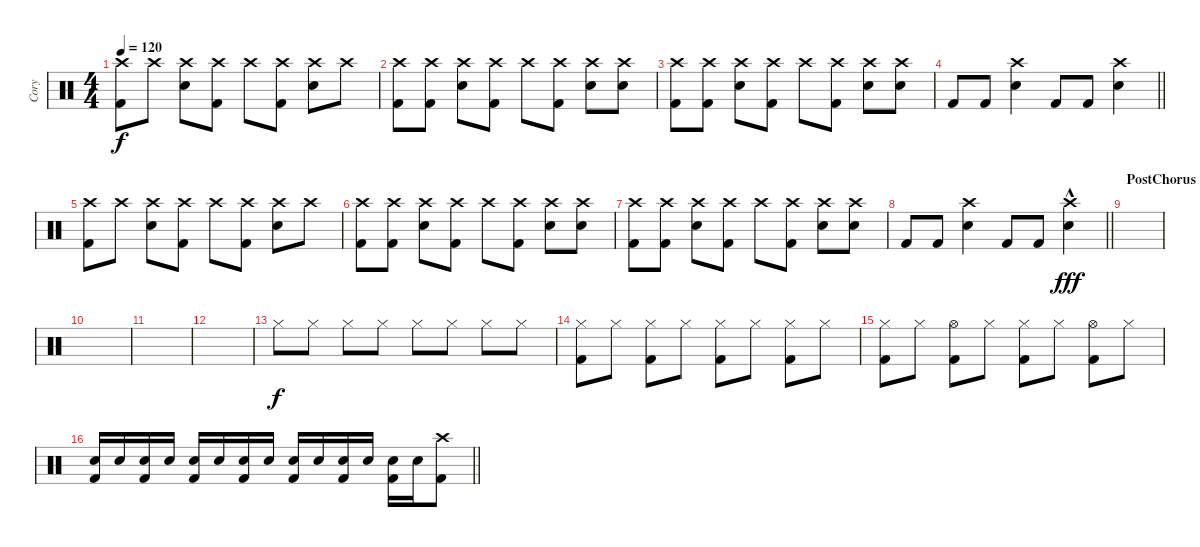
\track ("Cory" "Cory") {instrument percussion}
\staff {score}
\articulation defaults
\ts (4 4)
\tempo 120
\clef neutral
\ks c
("Crash high (hit)" "Kick (hit) 2").8{dy f} "Crash high (hit)".8 ("Crash high (hit)" "Snare (hit) 2").8 ("Crash high (hit)" "Kick (hit) 2").8 "Crash high (hit)".8 ("Crash high (hit)" "Kick (hit) 2").8 ("Crash high (hit)" "Snare (hit) 2").8 "Crash high (hit)".8 |
("Crash high (hit)" "Kick (hit) 2").8 ("Crash high (hit)" "Kick (hit) 2").8 ("Crash high (hit)" "Snare (hit) 2").8 ("Crash high (hit)" "Kick (hit) 2").8 "Crash high (hit)".8 ("Crash high (hit)" "Kick (hit) 2").8 ("Crash high (hit)" "Snare (hit) 2").8 ("Crash high (hit)" "Snare (hit) 2").8 |
("Crash high (hit)" "Kick (hit) 2").8 ("Crash high (hit)" "Kick (hit) 2").8 ("Crash high (hit)" "Snare (hit) 2").8 ("Crash high (hit)" "Kick (hit) 2").8 "Crash high (hit)".8 ("Crash high (hit)" "Kick (hit) 2").8 ("Crash high (hit)" "Snare (hit) 2").8 ("Crash high (hit)" "Snare (hit) 2").8 |
\barLineRight lightlight "Kick (hit) 2".8 "Kick (hit) 2".8
("Crash high (hit)" "Snare (hit) 2").4 "Kick (hit) 2".8 "Kick (hit) 2".8 ("Crash high (hit)" "Snare (hit) 2").4 |
("Crash high (hit)" "Kick (hit) 2").8 "Crash high (hit)".8 ("Crash high (hit)" "Snare (hit) 2").8 ("Crash high (hit)" "Kick (hit) 2").8 "Crash high (hit)".8 ("Crash high (hit)" "Kick (hit) 2").8 ("Crash high (hit)" "Snare (hit) 2").8 "Crash high (hit)".8 |
("Crash high (hit)" "Kick (hit) 2").8 ("Crash high (hit)" "Kick (hit) 2").8 ("Crash high (hit)" "Snare (hit) 2").8 ("Crash high (hit)" "Kick (hit) 2").8 "Crash high (hit)".8 ("Crash high (hit)" "Kick (hit) 2").8 ("Crash high (hit)" "Snare (hit) 2").8 ("Crash high (hit)" "Snare (hit) 2").8 |
("Crash high (hit)" "Kick (hit) 2").8 ("Crash high (hit)" "Kick (hit) 2").8 ("Crash high (hit)" "Snare (hit) 2").8 ("Crash high (hit)" "Kick (hit) 2").8 "Crash high (hit)".8 ("Crash high (hit)" "Kick (hit) 2").8 ("Crash high (hit)" "Snare (hit) 2").8 ("Crash high (hit)" "Snare (hit) 2").8 |
\barLineRight lightlight "Kick (hit) 2".8 "Kick (hit) 2".8
("Crash high (hit)" "Snare (hit) 2").4 "Kick (hit) 2".8 "Kick (hit) 2".8 ("Crash high (hit)"{hac} "Snare (hit) 2").4{dy fff} |
\section ("" "PostChorus")
|
|
|
|
"Hi-Hat (closed)".8{dy f} "Hi-Hat (closed)".8 "Hi-Hat (closed)".8 "Hi-Hat (closed)".8 "Hi-Hat (closed)".8 "Hi-Hat (closed)".8 "Hi-Hat (closed)".8 "Hi-Hat (closed)".8 |
("Hi-Hat (closed)" "Kick (hit) 2").8 "Hi-Hat (closed)".8 ("Hi-Hat (closed)" "Kick (hit) 2").8 "Hi-Hat (closed)".8 ("Hi-Hat (closed)" "Kick (hit) 2").8 "Hi-Hat (closed)".8 ("Hi-Hat (closed)" "Kick (hit) 2").8 "Hi-Hat (closed)".8 |
("Hi-Hat (closed)" "Kick (hit) 2").8 "Hi-Hat (closed)".8 ("Hi-Hat (open)" "Kick (hit) 2").8 "Hi-Hat (closed)".8 ("Hi-Hat (closed)" "Kick (hit) 2").8 "Hi-Hat (closed)".8 ("Hi-Hat (open)" "Kick (hit) 2").8 "Hi-Hat (closed)".8 |
\barLineRight lightlight
("Snare (hit) 2" "Kick (hit) 2").16 "Snare (hit) 2".16 ("Snare (hit) 2" "Kick (hit) 2").16 "Snare (hit) 2".16 ("Snare (hit) 2" "Kick (hit) 2").16 "Snare (hit) 2".16 ("Snare (hit) 2" "Kick (hit) 2").16 "Snare (hit) 2".16 ("Snare (hit) 2" "Kick (hit) 2").16 "Snare (hit) 2".16 ("Snare (hit) 2" "Kick (hit) 2").16 "Snare (hit) 2".16 ("Snare (hit) 2" "Kick (hit) 2").16 "Snare (hit) 2".16 ("Crash high (hit)" "Kick (hit) 2").8
